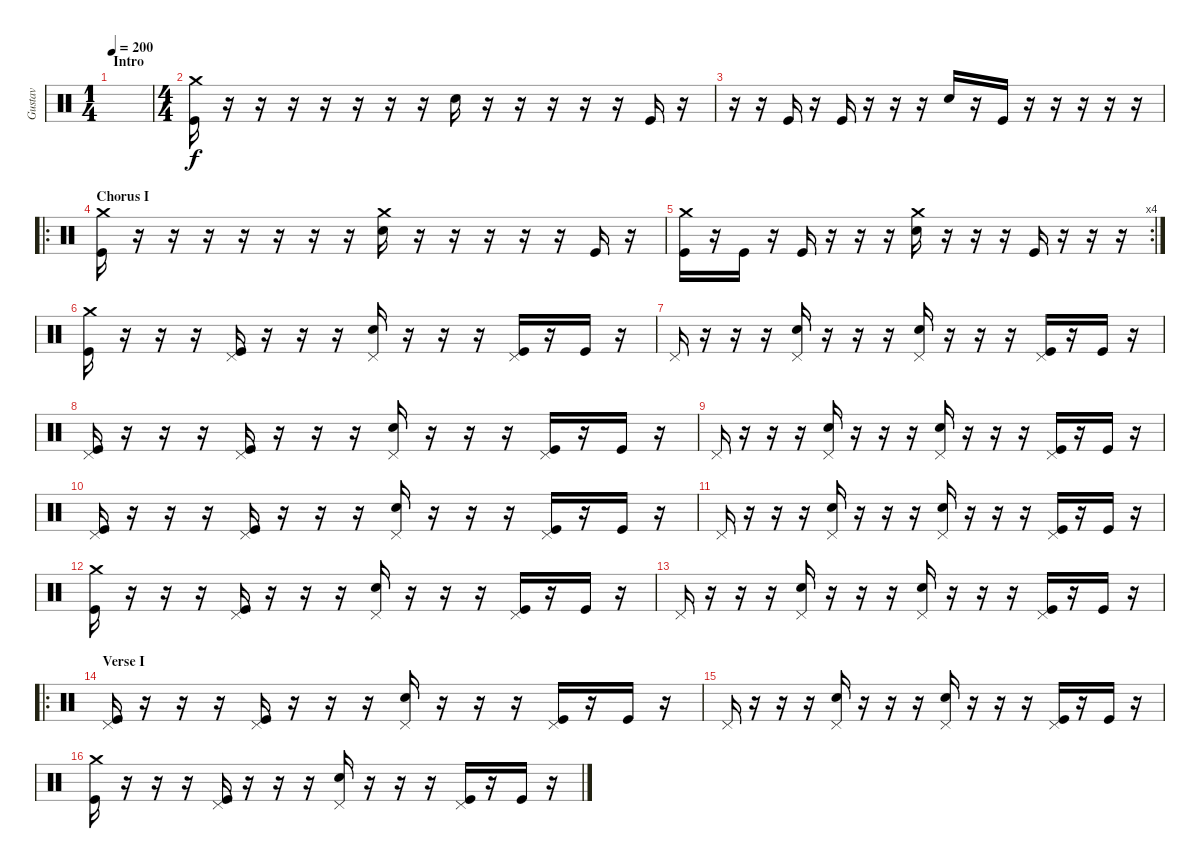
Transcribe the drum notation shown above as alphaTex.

\track ("Gustav" "Gustav") {instrument percussion}
\staff {score}
\articulation defaults
\ts (1 4)
\section ("" "Intro")
\tempo 200
\clef neutral
\ks c
|
\ts (4 4)
("Crash medium (hit)" "Kick (hit)").16 r.16 r.16 r.16 r.16 r.16 r.16 r.16 "Electric Snare (hit)".16 r.16 r.16 r.16 r.16 r.16 "Kick (hit)".16 r.16 |
r.16 r.16 "Kick (hit)".16 r.16 "Kick (hit)".16 r.16 r.16 r.16 "Electric Snare (hit)".16 r.16 "Kick (hit)".16 r.16 r.16 r.16 r.16 r.16 |
\ro
\section ("" "Chorus I")
("Crash medium (hit)" "Kick (hit)").16 r.16 r.16 r.16 r.16 r.16 r.16 r.16 ("Crash medium (hit)" "Electric Snare (hit)").16 r.16 r.16 r.16 r.16 r.16 "Kick (hit)".16 r.16 |
\rc 4
("Crash medium (hit)" "Kick (hit)").16 r.16 "Kick (hit)".16 r.16 "Kick (hit)".16 r.16 r.16 r.16 ("Crash medium (hit)" "Electric Snare (hit)").16 r.16 r.16 r.16 "Kick (hit)".16 r.16 r.16 r.16 |
("Crash medium (hit)" "Kick (hit)").16 r.16 r.16 r.16 ("Pedal Hi-Hat (hit)" "Kick (hit)").16 r.16 r.16 r.16 ("Pedal Hi-Hat (hit)" "Electric Snare (hit)").16 r.16 r.16 r.16 ("Pedal Hi-Hat (hit)" "Kick (hit)").16 r.16 "Kick (hit)".16 r.16 |
"Pedal Hi-Hat (hit)".16 r.16 r.16 r.16 ("Pedal Hi-Hat (hit)" "Electric Snare (hit)").16 r.16 r.16 r.16 ("Pedal Hi-Hat (hit)" "Electric Snare (hit)").16 r.16 r.16 r.16 ("Pedal Hi-Hat (hit)" "Kick (hit)").16 r.16 "Kick (hit)".16 r.16 |
("Pedal Hi-Hat (hit)" "Kick (hit)").16 r.16 r.16 r.16 ("Pedal Hi-Hat (hit)" "Kick (hit)").16 r.16 r.16 r.16 ("Pedal Hi-Hat (hit)" "Electric Snare (hit)").16 r.16 r.16 r.16 ("Pedal Hi-Hat (hit)" "Kick (hit)").16 r.16 "Kick (hit)".16 r.16 |
"Pedal Hi-Hat (hit)".16 r.16 r.16 r.16 ("Pedal Hi-Hat (hit)" "Electric Snare (hit)").16 r.16 r.16 r.16 ("Pedal Hi-Hat (hit)" "Electric Snare (hit)").16 r.16 r.16 r.16 ("Pedal Hi-Hat (hit)" "Kick (hit)").16 r.16 "Kick (hit)".16 r.16 |
("Pedal Hi-Hat (hit)" "Kick (hit)").16 r.16 r.16 r.16 ("Pedal Hi-Hat (hit)" "Kick (hit)").16 r.16 r.16 r.16 ("Pedal Hi-Hat (hit)" "Electric Snare (hit)").16 r.16 r.16 r.16 ("Pedal Hi-Hat (hit)" "Kick (hit)").16 r.16 "Kick (hit)".16 r.16 |
"Pedal Hi-Hat (hit)".16 r.16 r.16 r.16 ("Pedal Hi-Hat (hit)" "Electric Snare (hit)").16 r.16 r.16 r.16 ("Pedal Hi-Hat (hit)" "Electric Snare (hit)").16 r.16 r.16 r.16 ("Pedal Hi-Hat (hit)" "Kick (hit)").16 r.16 "Kick (hit)".16 r.16 |
("Crash medium (hit)" "Kick (hit)").16 r.16 r.16 r.16 ("Pedal Hi-Hat (hit)" "Kick (hit)").16 r.16 r.16 r.16 ("Pedal Hi-Hat (hit)" "Electric Snare (hit)").16 r.16 r.16 r.16 ("Pedal Hi-Hat (hit)" "Kick (hit)").16 r.16 "Kick (hit)".16 r.16 |
"Pedal Hi-Hat (hit)".16 r.16 r.16 r.16 ("Pedal Hi-Hat (hit)" "Electric Snare (hit)").16 r.16 r.16 r.16 ("Pedal Hi-Hat (hit)" "Electric Snare (hit)").16 r.16 r.16 r.16 ("Pedal Hi-Hat (hit)" "Kick (hit)").16 r.16 "Kick (hit)".16 r.16 |
\ro
\section ("" "Verse I")
("Pedal Hi-Hat (hit)" "Kick (hit)").16 r.16 r.16 r.16 ("Pedal Hi-Hat (hit)" "Kick (hit)").16 r.16 r.16 r.16 ("Pedal Hi-Hat (hit)" "Electric Snare (hit)").16 r.16 r.16 r.16 ("Pedal Hi-Hat (hit)" "Kick (hit)").16 r.16 "Kick (hit)".16 r.16 |
"Pedal Hi-Hat (hit)".16 r.16 r.16 r.16 ("Pedal Hi-Hat (hit)" "Electric Snare (hit)").16 r.16 r.16 r.16 ("Pedal Hi-Hat (hit)" "Electric Snare (hit)").16 r.16 r.16 r.16 ("Pedal Hi-Hat (hit)" "Kick (hit)").16 r.16 "Kick (hit)".16 r.16 |
("Crash medium (hit)" "Kick (hit)").16 r.16 r.16 r.16 ("Pedal Hi-Hat (hit)" "Kick (hit)").16 r.16 r.16 r.16 ("Pedal Hi-Hat (hit)" "Electric Snare (hit)").16 r.16 r.16 r.16 ("Pedal Hi-Hat (hit)" "Kick (hit)").16 r.16 "Kick (hit)".16 r.16
